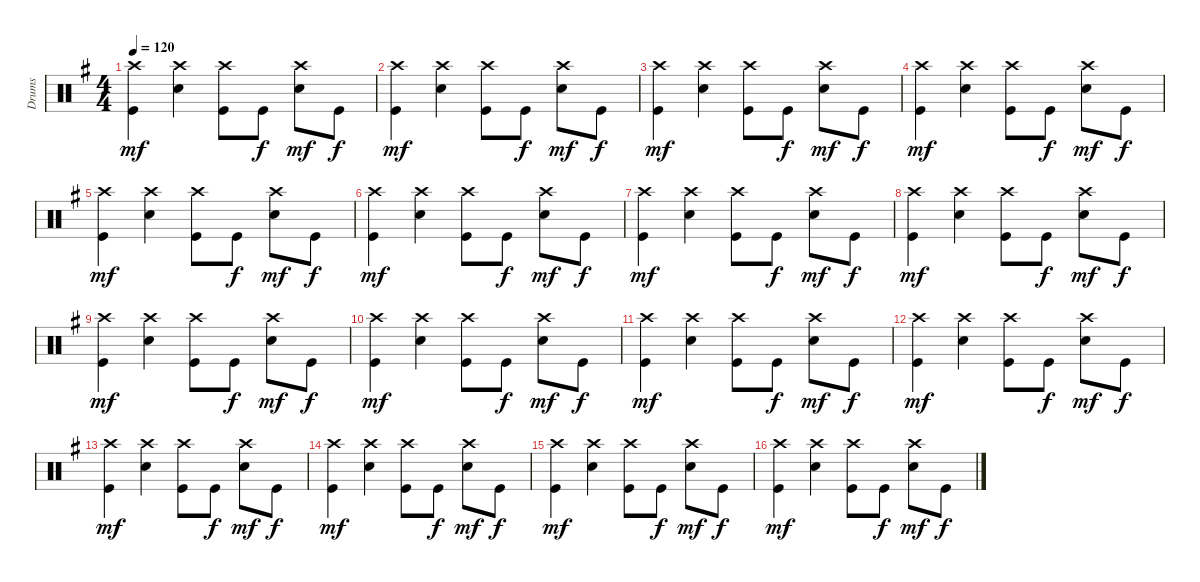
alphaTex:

\track ("Drums" "Drums") {instrument percussion}
\staff {score}
\articulation defaults
\ts (4 4)
\tempo 120
\clef neutral
\ks g
("Crash high (hit)" "Kick (hit)").4{dy mf} ("Crash high (hit)" "Snare (hit) 2").4 ("Crash high (hit)" "Kick (hit)").8 "Kick (hit)".8{dy f} ("Crash high (hit)" "Snare (hit) 2").8{dy mf} "Kick (hit)".8{dy f} |
("Crash high (hit)" "Kick (hit)").4{dy mf} ("Crash high (hit)" "Snare (hit) 2").4 ("Crash high (hit)" "Kick (hit)").8 "Kick (hit)".8{dy f} ("Crash high (hit)" "Snare (hit) 2").8{dy mf} "Kick (hit)".8{dy f} |
("Crash high (hit)" "Kick (hit)").4{dy mf} ("Crash high (hit)" "Snare (hit) 2").4 ("Crash high (hit)" "Kick (hit)").8 "Kick (hit)".8{dy f} ("Crash high (hit)" "Snare (hit) 2").8{dy mf} "Kick (hit)".8{dy f} |
("Crash high (hit)" "Kick (hit)").4{dy mf} ("Crash high (hit)" "Snare (hit) 2").4 ("Crash high (hit)" "Kick (hit)").8 "Kick (hit)".8{dy f} ("Crash high (hit)" "Snare (hit) 2").8{dy mf} "Kick (hit)".8{dy f} |
("Crash high (hit)" "Kick (hit)").4{dy mf} ("Crash high (hit)" "Snare (hit) 2").4 ("Crash high (hit)" "Kick (hit)").8 "Kick (hit)".8{dy f} ("Crash high (hit)" "Snare (hit) 2").8{dy mf} "Kick (hit)".8{dy f} |
("Crash high (hit)" "Kick (hit)").4{dy mf} ("Crash high (hit)" "Snare (hit) 2").4 ("Crash high (hit)" "Kick (hit)").8 "Kick (hit)".8{dy f} ("Crash high (hit)" "Snare (hit) 2").8{dy mf} "Kick (hit)".8{dy f} |
("Crash high (hit)" "Kick (hit)").4{dy mf} ("Crash high (hit)" "Snare (hit) 2").4 ("Crash high (hit)" "Kick (hit)").8 "Kick (hit)".8{dy f} ("Crash high (hit)" "Snare (hit) 2").8{dy mf} "Kick (hit)".8{dy f} |
("Crash high (hit)" "Kick (hit)").4{dy mf} ("Crash high (hit)" "Snare (hit) 2").4 ("Crash high (hit)" "Kick (hit)").8 "Kick (hit)".8{dy f} ("Crash high (hit)" "Snare (hit) 2").8{dy mf} "Kick (hit)".8{dy f} |
("Crash high (hit)" "Kick (hit)").4{dy mf} ("Crash high (hit)" "Snare (hit) 2").4 ("Crash high (hit)" "Kick (hit)").8 "Kick (hit)".8{dy f} ("Crash high (hit)" "Snare (hit) 2").8{dy mf} "Kick (hit)".8{dy f} |
("Crash high (hit)" "Kick (hit)").4{dy mf} ("Crash high (hit)" "Snare (hit) 2").4 ("Crash high (hit)" "Kick (hit)").8 "Kick (hit)".8{dy f} ("Crash high (hit)" "Snare (hit) 2").8{dy mf} "Kick (hit)".8{dy f} |
("Crash high (hit)" "Kick (hit)").4{dy mf} ("Crash high (hit)" "Snare (hit) 2").4 ("Crash high (hit)" "Kick (hit)").8 "Kick (hit)".8{dy f} ("Crash high (hit)" "Snare (hit) 2").8{dy mf} "Kick (hit)".8{dy f} |
("Crash high (hit)" "Kick (hit)").4{dy mf} ("Crash high (hit)" "Snare (hit) 2").4 ("Crash high (hit)" "Kick (hit)").8 "Kick (hit)".8{dy f} ("Crash high (hit)" "Snare (hit) 2").8{dy mf} "Kick (hit)".8{dy f} |
("Crash high (hit)" "Kick (hit)").4{dy mf} ("Crash high (hit)" "Snare (hit) 2").4 ("Crash high (hit)" "Kick (hit)").8 "Kick (hit)".8{dy f} ("Crash high (hit)" "Snare (hit) 2").8{dy mf} "Kick (hit)".8{dy f} |
("Crash high (hit)" "Kick (hit)").4{dy mf} ("Crash high (hit)" "Snare (hit) 2").4 ("Crash high (hit)" "Kick (hit)").8 "Kick (hit)".8{dy f} ("Crash high (hit)" "Snare (hit) 2").8{dy mf} "Kick (hit)".8{dy f} |
("Crash high (hit)" "Kick (hit)").4{dy mf} ("Crash high (hit)" "Snare (hit) 2").4 ("Crash high (hit)" "Kick (hit)").8 "Kick (hit)".8{dy f} ("Crash high (hit)" "Snare (hit) 2").8{dy mf} "Kick (hit)".8{dy f} |
("Crash high (hit)" "Kick (hit)").4{dy mf} ("Crash high (hit)" "Snare (hit) 2").4 ("Crash high (hit)" "Kick (hit)").8 "Kick (hit)".8{dy f} ("Crash high (hit)" "Snare (hit) 2").8{dy mf} "Kick (hit)".8{dy f}
